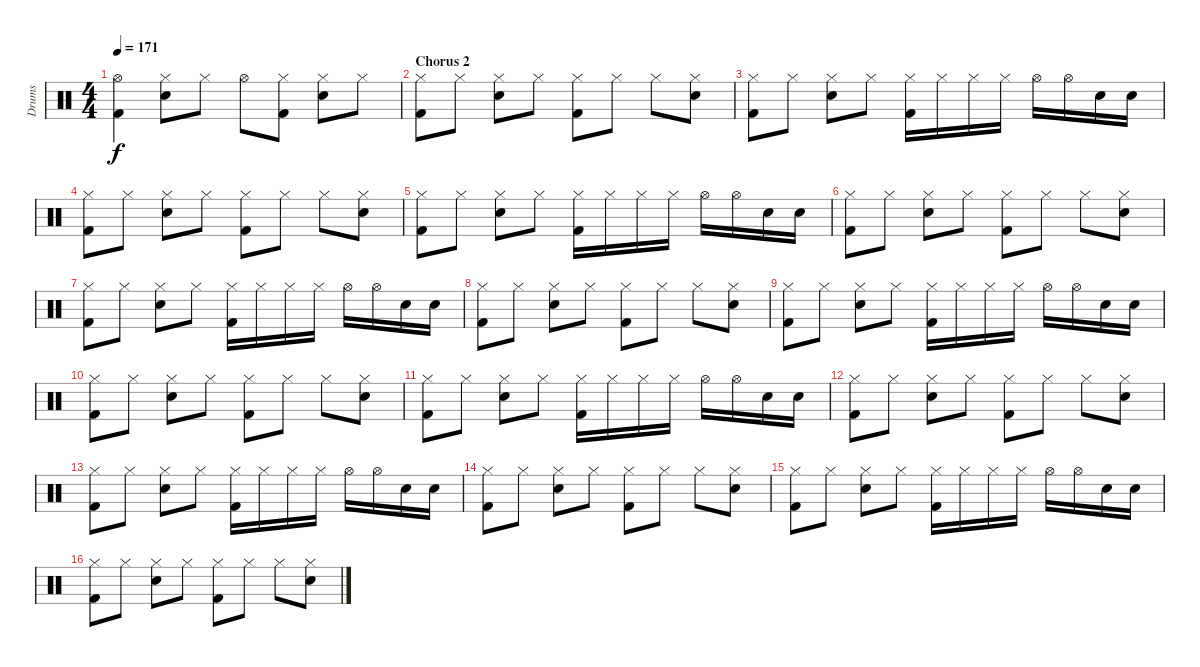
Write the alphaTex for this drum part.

\track ("Drums" "Drums") {instrument percussion}
\staff {score}
\articulation defaults
\ts (4 4)
\tempo 171
\clef neutral
\ks c
("Hi-Hat (open)" "Kick (hit) 2").4{dy f} ("Hi-Hat (closed)" "Electric Snare (hit)").8 "Hi-Hat (closed)".8 "Hi-Hat (open)".8 ("Hi-Hat (closed)" "Kick (hit) 2").8 ("Hi-Hat (closed)" "Electric Snare (hit)").8 "Hi-Hat (closed)".8 |
\section ("" "Chorus 2")
("Hi-Hat (closed)" "Kick (hit) 2").8 "Hi-Hat (closed)".8 ("Hi-Hat (closed)" "Electric Snare (hit)").8 "Hi-Hat (closed)".8 ("Hi-Hat (closed)" "Kick (hit) 2").8 "Hi-Hat (closed)".8 "Hi-Hat (closed)".8 ("Hi-Hat (closed)" "Electric Snare (hit)").8 |
("Hi-Hat (closed)" "Kick (hit) 2").8 "Hi-Hat (closed)".8 ("Hi-Hat (closed)" "Electric Snare (hit)").8 "Hi-Hat (closed)".8 ("Hi-Hat (closed)" "Kick (hit) 2").16 "Hi-Hat (closed)".16 "Hi-Hat (closed)".16 "Hi-Hat (closed)".16 "Hi-Hat (open)".16 "Hi-Hat (open)".16 "Electric Snare (hit)".16 "Electric Snare (hit)".16 |
("Hi-Hat (closed)" "Kick (hit) 2").8 "Hi-Hat (closed)".8 ("Hi-Hat (closed)" "Electric Snare (hit)").8 "Hi-Hat (closed)".8 ("Hi-Hat (closed)" "Kick (hit) 2").8 "Hi-Hat (closed)".8 "Hi-Hat (closed)".8 ("Hi-Hat (closed)" "Electric Snare (hit)").8 |
("Hi-Hat (closed)" "Kick (hit) 2").8 "Hi-Hat (closed)".8 ("Hi-Hat (closed)" "Electric Snare (hit)").8 "Hi-Hat (closed)".8 ("Hi-Hat (closed)" "Kick (hit) 2").16 "Hi-Hat (closed)".16 "Hi-Hat (closed)".16 "Hi-Hat (closed)".16 "Hi-Hat (open)".16 "Hi-Hat (open)".16 "Electric Snare (hit)".16 "Electric Snare (hit)".16 |
("Hi-Hat (closed)" "Kick (hit) 2").8 "Hi-Hat (closed)".8 ("Hi-Hat (closed)" "Electric Snare (hit)").8 "Hi-Hat (closed)".8 ("Hi-Hat (closed)" "Kick (hit) 2").8 "Hi-Hat (closed)".8 "Hi-Hat (closed)".8 ("Hi-Hat (closed)" "Electric Snare (hit)").8 |
("Hi-Hat (closed)" "Kick (hit) 2").8 "Hi-Hat (closed)".8 ("Hi-Hat (closed)" "Electric Snare (hit)").8 "Hi-Hat (closed)".8 ("Hi-Hat (closed)" "Kick (hit) 2").16 "Hi-Hat (closed)".16 "Hi-Hat (closed)".16 "Hi-Hat (closed)".16 "Hi-Hat (open)".16 "Hi-Hat (open)".16 "Electric Snare (hit)".16 "Electric Snare (hit)".16 |
("Hi-Hat (closed)" "Kick (hit) 2").8 "Hi-Hat (closed)".8 ("Hi-Hat (closed)" "Electric Snare (hit)").8 "Hi-Hat (closed)".8 ("Hi-Hat (closed)" "Kick (hit) 2").8 "Hi-Hat (closed)".8 "Hi-Hat (closed)".8 ("Hi-Hat (closed)" "Electric Snare (hit)").8 |
("Hi-Hat (closed)" "Kick (hit) 2").8 "Hi-Hat (closed)".8 ("Hi-Hat (closed)" "Electric Snare (hit)").8 "Hi-Hat (closed)".8 ("Hi-Hat (closed)" "Kick (hit) 2").16 "Hi-Hat (closed)".16 "Hi-Hat (closed)".16 "Hi-Hat (closed)".16 "Hi-Hat (open)".16 "Hi-Hat (open)".16 "Electric Snare (hit)".16 "Electric Snare (hit)".16 |
("Hi-Hat (closed)" "Kick (hit) 2").8 "Hi-Hat (closed)".8 ("Hi-Hat (closed)" "Electric Snare (hit)").8 "Hi-Hat (closed)".8 ("Hi-Hat (closed)" "Kick (hit) 2").8 "Hi-Hat (closed)".8 "Hi-Hat (closed)".8 ("Hi-Hat (closed)" "Electric Snare (hit)").8 |
("Hi-Hat (closed)" "Kick (hit) 2").8 "Hi-Hat (closed)".8 ("Hi-Hat (closed)" "Electric Snare (hit)").8 "Hi-Hat (closed)".8 ("Hi-Hat (closed)" "Kick (hit) 2").16 "Hi-Hat (closed)".16 "Hi-Hat (closed)".16 "Hi-Hat (closed)".16 "Hi-Hat (open)".16 "Hi-Hat (open)".16 "Electric Snare (hit)".16 "Electric Snare (hit)".16 |
("Hi-Hat (closed)" "Kick (hit) 2").8 "Hi-Hat (closed)".8 ("Hi-Hat (closed)" "Electric Snare (hit)").8 "Hi-Hat (closed)".8 ("Hi-Hat (closed)" "Kick (hit) 2").8 "Hi-Hat (closed)".8 "Hi-Hat (closed)".8 ("Hi-Hat (closed)" "Electric Snare (hit)").8 |
("Hi-Hat (closed)" "Kick (hit) 2").8 "Hi-Hat (closed)".8 ("Hi-Hat (closed)" "Electric Snare (hit)").8 "Hi-Hat (closed)".8 ("Hi-Hat (closed)" "Kick (hit) 2").16 "Hi-Hat (closed)".16 "Hi-Hat (closed)".16 "Hi-Hat (closed)".16 "Hi-Hat (open)".16 "Hi-Hat (open)".16 "Electric Snare (hit)".16 "Electric Snare (hit)".16 |
("Hi-Hat (closed)" "Kick (hit) 2").8 "Hi-Hat (closed)".8 ("Hi-Hat (closed)" "Electric Snare (hit)").8 "Hi-Hat (closed)".8 ("Hi-Hat (closed)" "Kick (hit) 2").8 "Hi-Hat (closed)".8 "Hi-Hat (closed)".8 ("Hi-Hat (closed)" "Electric Snare (hit)").8 |
("Hi-Hat (closed)" "Kick (hit) 2").8 "Hi-Hat (closed)".8 ("Hi-Hat (closed)" "Electric Snare (hit)").8 "Hi-Hat (closed)".8 ("Hi-Hat (closed)" "Kick (hit) 2").16 "Hi-Hat (closed)".16 "Hi-Hat (closed)".16 "Hi-Hat (closed)".16 "Hi-Hat (open)".16 "Hi-Hat (open)".16 "Electric Snare (hit)".16 "Electric Snare (hit)".16 |
("Hi-Hat (closed)" "Kick (hit) 2").8 "Hi-Hat (closed)".8 ("Hi-Hat (closed)" "Electric Snare (hit)").8 "Hi-Hat (closed)".8 ("Hi-Hat (closed)" "Kick (hit) 2").8 "Hi-Hat (closed)".8 "Hi-Hat (closed)".8 ("Hi-Hat (closed)" "Electric Snare (hit)").8
